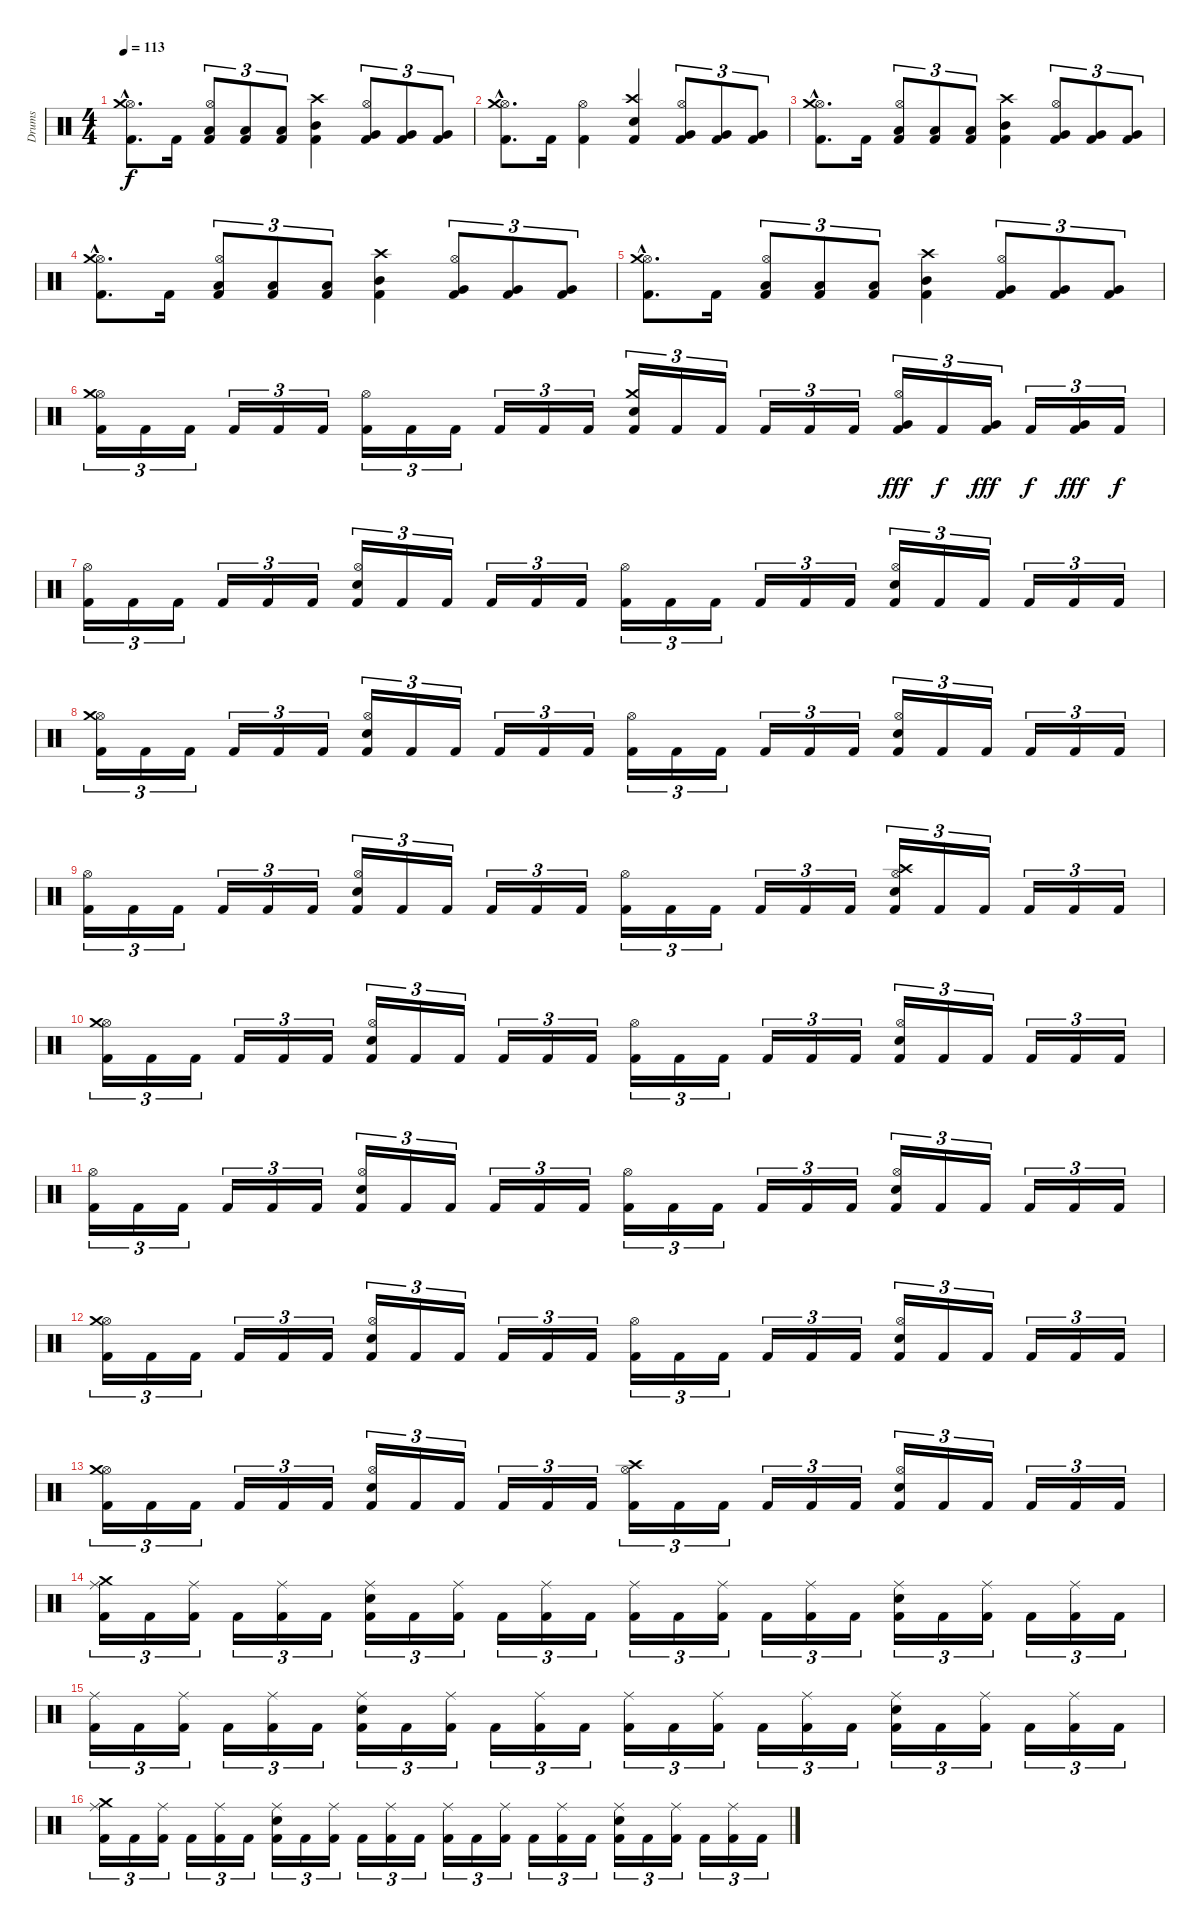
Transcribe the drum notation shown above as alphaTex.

\track ("Drums" "Drums") {instrument percussion}
\staff {score}
\articulation defaults
\ts (4 4)
\tempo 113
\clef neutral
\ks c
("Kick (hit) 2"{hac} "Hi-Hat (open)"{hac} "Crash medium (hit)"{hac}).8{d dy f} "Kick (hit) 2".16 ("Kick (hit) 2" "Low Tom (hit)" "Hi-Hat (open)").8{tu (3 2)} ("Kick (hit) 2" "Low Tom (hit)").8{tu (3 2)} ("Kick (hit) 2" "Low Tom (hit)").8{tu (3 2)} ("Kick (hit) 2" "Mid Tom (hit)" "Crash high (hit)").4 ("Kick (hit) 2" "Very Low Tom (hit)" "Hi-Hat (open)").8{tu (3 2)} ("Kick (hit) 2" "Very Low Tom (hit)").8{tu (3 2)} ("Kick (hit) 2" "Very Low Tom (hit)").8{tu (3 2)} |
("Kick (hit) 2"{hac} "Hi-Hat (open)"{hac} "Crash medium (hit)"{hac}).8{d} "Kick (hit) 2".16 ("Kick (hit) 2" "Hi-Hat (open)").4 ("Kick (hit) 2" "Electric Snare (hit)" "Crash high (hit)").4 ("Kick (hit) 2" "Very Low Tom (hit)" "Hi-Hat (open)").8{tu (3 2)} ("Kick (hit) 2" "Very Low Tom (hit)").8{tu (3 2)} ("Kick (hit) 2" "Very Low Tom (hit)").8{tu (3 2)} |
("Kick (hit) 2"{hac} "Hi-Hat (open)"{hac} "Crash medium (hit)"{hac}).8{d} "Kick (hit) 2".16 ("Kick (hit) 2" "Low Tom (hit)" "Hi-Hat (open)").8{tu (3 2)} ("Kick (hit) 2" "Low Tom (hit)").8{tu (3 2)} ("Kick (hit) 2" "Low Tom (hit)").8{tu (3 2)} ("Kick (hit) 2" "Mid Tom (hit)" "Crash high (hit)").4 ("Kick (hit) 2" "Very Low Tom (hit)" "Hi-Hat (open)").8{tu (3 2)} ("Kick (hit) 2" "Very Low Tom (hit)").8{tu (3 2)} ("Kick (hit) 2" "Very Low Tom (hit)").8{tu (3 2)} |
("Kick (hit) 2"{hac} "Hi-Hat (open)"{hac} "Crash medium (hit)"{hac}).8{d} "Kick (hit) 2".16 ("Kick (hit) 2" "Low Tom (hit)" "Hi-Hat (open)").8{tu (3 2)} ("Kick (hit) 2" "Low Tom (hit)").8{tu (3 2)} ("Kick (hit) 2" "Low Tom (hit)").8{tu (3 2)} ("Kick (hit) 2" "Mid Tom (hit)" "Crash high (hit)").4 ("Kick (hit) 2" "Very Low Tom (hit)" "Hi-Hat (open)").8{tu (3 2)} ("Kick (hit) 2" "Very Low Tom (hit)").8{tu (3 2)} ("Kick (hit) 2" "Very Low Tom (hit)").8{tu (3 2)} |
("Kick (hit) 2"{hac} "Hi-Hat (open)"{hac} "Crash medium (hit)"{hac}).8{d} "Kick (hit) 2".16 ("Kick (hit) 2" "Low Tom (hit)" "Hi-Hat (open)").8{tu (3 2)} ("Kick (hit) 2" "Low Tom (hit)").8{tu (3 2)} ("Kick (hit) 2" "Low Tom (hit)").8{tu (3 2)} ("Kick (hit) 2" "Mid Tom (hit)" "Crash high (hit)").4 ("Kick (hit) 2" "Very Low Tom (hit)" "Hi-Hat (open)").8{tu (3 2)} ("Kick (hit) 2" "Very Low Tom (hit)").8{tu (3 2)} ("Kick (hit) 2" "Very Low Tom (hit)").8{tu (3 2)} |
("Kick (hit) 2" "Hi-Hat (open)" "Crash medium (hit)").16{tu (3 2)} "Kick (hit) 2".16{tu (3 2)} "Kick (hit) 2".16{tu (3 2)} "Kick (hit) 2".16{tu (3 2)} "Kick (hit) 2".16{tu (3 2)} "Kick (hit) 2".16{tu (3 2)} ("Kick (hit) 2" "Hi-Hat (open)").16{tu (3 2)} "Kick (hit) 2".16{tu (3 2)} "Kick (hit) 2".16{tu (3 2)} "Kick (hit) 2".16{tu (3 2)} "Kick (hit) 2".16{tu (3 2)} "Kick (hit) 2".16{tu (3 2)} ("Kick (hit) 2" "Electric Snare (hit)" "Crash medium (hit)").16{tu (3 2)} "Kick (hit) 2".16{tu (3 2)} "Kick (hit) 2".16{tu (3 2)} "Kick (hit) 2".16{tu (3 2)} "Kick (hit) 2".16{tu (3 2)} "Kick (hit) 2".16{tu (3 2)} ("Kick (hit) 2" "Very Low Tom (hit)" "Hi-Hat (open)").16{tu (3 2) dy fff} "Kick (hit) 2".16{tu (3 2) dy f} ("Kick (hit) 2" "Very Low Tom (hit)").16{tu (3 2) dy fff} "Kick (hit) 2".16{tu (3 2) dy f} ("Kick (hit) 2" "Very Low Tom (hit)").16{tu (3 2) dy fff} "Kick (hit) 2".16{tu (3 2) dy f} |
("Kick (hit) 2" "Hi-Hat (open)").16{tu (3 2)} "Kick (hit) 2".16{tu (3 2)} "Kick (hit) 2".16{tu (3 2)} "Kick (hit) 2".16{tu (3 2)} "Kick (hit) 2".16{tu (3 2)} "Kick (hit) 2".16{tu (3 2)} ("Kick (hit) 2" "Snare (hit) 2" "Hi-Hat (open)").16{tu (3 2)} "Kick (hit) 2".16{tu (3 2)} "Kick (hit) 2".16{tu (3 2)} "Kick (hit) 2".16{tu (3 2)} "Kick (hit) 2".16{tu (3 2)} "Kick (hit) 2".16{tu (3 2)} ("Kick (hit) 2" "Hi-Hat (open)").16{tu (3 2)} "Kick (hit) 2".16{tu (3 2)} "Kick (hit) 2".16{tu (3 2)} "Kick (hit) 2".16{tu (3 2)} "Kick (hit) 2".16{tu (3 2)} "Kick (hit) 2".16{tu (3 2)} ("Kick (hit) 2" "Snare (hit) 2" "Hi-Hat (open)").16{tu (3 2)} "Kick (hit) 2".16{tu (3 2)} "Kick (hit) 2".16{tu (3 2)} "Kick (hit) 2".16{tu (3 2)} "Kick (hit) 2".16{tu (3 2)} "Kick (hit) 2".16{tu (3 2)} |
("Kick (hit) 2" "Hi-Hat (open)" "Crash medium (hit)").16{tu (3 2)} "Kick (hit) 2".16{tu (3 2)} "Kick (hit) 2".16{tu (3 2)} "Kick (hit) 2".16{tu (3 2)} "Kick (hit) 2".16{tu (3 2)} "Kick (hit) 2".16{tu (3 2)} ("Kick (hit) 2" "Snare (hit) 2" "Hi-Hat (open)").16{tu (3 2)} "Kick (hit) 2".16{tu (3 2)} "Kick (hit) 2".16{tu (3 2)} "Kick (hit) 2".16{tu (3 2)} "Kick (hit) 2".16{tu (3 2)} "Kick (hit) 2".16{tu (3 2)} ("Kick (hit) 2" "Hi-Hat (open)").16{tu (3 2)} "Kick (hit) 2".16{tu (3 2)} "Kick (hit) 2".16{tu (3 2)} "Kick (hit) 2".16{tu (3 2)} "Kick (hit) 2".16{tu (3 2)} "Kick (hit) 2".16{tu (3 2)} ("Kick (hit) 2" "Snare (hit) 2" "Hi-Hat (open)").16{tu (3 2)} "Kick (hit) 2".16{tu (3 2)} "Kick (hit) 2".16{tu (3 2)} "Kick (hit) 2".16{tu (3 2)} "Kick (hit) 2".16{tu (3 2)} "Kick (hit) 2".16{tu (3 2)} |
("Kick (hit) 2" "Hi-Hat (open)").16{tu (3 2)} "Kick (hit) 2".16{tu (3 2)} "Kick (hit) 2".16{tu (3 2)} "Kick (hit) 2".16{tu (3 2)} "Kick (hit) 2".16{tu (3 2)} "Kick (hit) 2".16{tu (3 2)} ("Kick (hit) 2" "Snare (hit) 2" "Hi-Hat (open)").16{tu (3 2)} "Kick (hit) 2".16{tu (3 2)} "Kick (hit) 2".16{tu (3 2)} "Kick (hit) 2".16{tu (3 2)} "Kick (hit) 2".16{tu (3 2)} "Kick (hit) 2".16{tu (3 2)} ("Kick (hit) 2" "Hi-Hat (open)").16{tu (3 2)} "Kick (hit) 2".16{tu (3 2)} "Kick (hit) 2".16{tu (3 2)} "Kick (hit) 2".16{tu (3 2)} "Kick (hit) 2".16{tu (3 2)} "Kick (hit) 2".16{tu (3 2)} ("Kick (hit) 2" "Snare (hit) 2" "Hi-Hat (open)" "Crash high (hit)").16{tu (3 2)} "Kick (hit) 2".16{tu (3 2)} "Kick (hit) 2".16{tu (3 2)} "Kick (hit) 2".16{tu (3 2)} "Kick (hit) 2".16{tu (3 2)} "Kick (hit) 2".16{tu (3 2)} |
("Kick (hit) 2" "Hi-Hat (open)" "Crash medium (hit)").16{tu (3 2)} "Kick (hit) 2".16{tu (3 2)} "Kick (hit) 2".16{tu (3 2)} "Kick (hit) 2".16{tu (3 2)} "Kick (hit) 2".16{tu (3 2)} "Kick (hit) 2".16{tu (3 2)} ("Kick (hit) 2" "Snare (hit) 2" "Hi-Hat (open)").16{tu (3 2)} "Kick (hit) 2".16{tu (3 2)} "Kick (hit) 2".16{tu (3 2)} "Kick (hit) 2".16{tu (3 2)} "Kick (hit) 2".16{tu (3 2)} "Kick (hit) 2".16{tu (3 2)} ("Kick (hit) 2" "Hi-Hat (open)").16{tu (3 2)} "Kick (hit) 2".16{tu (3 2)} "Kick (hit) 2".16{tu (3 2)} "Kick (hit) 2".16{tu (3 2)} "Kick (hit) 2".16{tu (3 2)} "Kick (hit) 2".16{tu (3 2)} ("Kick (hit) 2" "Snare (hit) 2" "Hi-Hat (open)").16{tu (3 2)} "Kick (hit) 2".16{tu (3 2)} "Kick (hit) 2".16{tu (3 2)} "Kick (hit) 2".16{tu (3 2)} "Kick (hit) 2".16{tu (3 2)} "Kick (hit) 2".16{tu (3 2)} |
("Kick (hit) 2" "Hi-Hat (open)").16{tu (3 2)} "Kick (hit) 2".16{tu (3 2)} "Kick (hit) 2".16{tu (3 2)} "Kick (hit) 2".16{tu (3 2)} "Kick (hit) 2".16{tu (3 2)} "Kick (hit) 2".16{tu (3 2)} ("Kick (hit) 2" "Snare (hit) 2" "Hi-Hat (open)").16{tu (3 2)} "Kick (hit) 2".16{tu (3 2)} "Kick (hit) 2".16{tu (3 2)} "Kick (hit) 2".16{tu (3 2)} "Kick (hit) 2".16{tu (3 2)} "Kick (hit) 2".16{tu (3 2)} ("Kick (hit) 2" "Hi-Hat (open)").16{tu (3 2)} "Kick (hit) 2".16{tu (3 2)} "Kick (hit) 2".16{tu (3 2)} "Kick (hit) 2".16{tu (3 2)} "Kick (hit) 2".16{tu (3 2)} "Kick (hit) 2".16{tu (3 2)} ("Kick (hit) 2" "Snare (hit) 2" "Hi-Hat (open)").16{tu (3 2)} "Kick (hit) 2".16{tu (3 2)} "Kick (hit) 2".16{tu (3 2)} "Kick (hit) 2".16{tu (3 2)} "Kick (hit) 2".16{tu (3 2)} "Kick (hit) 2".16{tu (3 2)} |
("Kick (hit) 2" "Hi-Hat (open)" "Crash medium (hit)").16{tu (3 2)} "Kick (hit) 2".16{tu (3 2)} "Kick (hit) 2".16{tu (3 2)} "Kick (hit) 2".16{tu (3 2)} "Kick (hit) 2".16{tu (3 2)} "Kick (hit) 2".16{tu (3 2)} ("Kick (hit) 2" "Snare (hit) 2" "Hi-Hat (open)").16{tu (3 2)} "Kick (hit) 2".16{tu (3 2)} "Kick (hit) 2".16{tu (3 2)} "Kick (hit) 2".16{tu (3 2)} "Kick (hit) 2".16{tu (3 2)} "Kick (hit) 2".16{tu (3 2)} ("Kick (hit) 2" "Hi-Hat (open)").16{tu (3 2)} "Kick (hit) 2".16{tu (3 2)} "Kick (hit) 2".16{tu (3 2)} "Kick (hit) 2".16{tu (3 2)} "Kick (hit) 2".16{tu (3 2)} "Kick (hit) 2".16{tu (3 2)} ("Kick (hit) 2" "Snare (hit) 2" "Hi-Hat (open)").16{tu (3 2)} "Kick (hit) 2".16{tu (3 2)} "Kick (hit) 2".16{tu (3 2)} "Kick (hit) 2".16{tu (3 2)} "Kick (hit) 2".16{tu (3 2)} "Kick (hit) 2".16{tu (3 2)} |
("Kick (hit) 2" "Hi-Hat (open)" "Crash medium (hit)").16{tu (3 2)} "Kick (hit) 2".16{tu (3 2)} "Kick (hit) 2".16{tu (3 2)} "Kick (hit) 2".16{tu (3 2)} "Kick (hit) 2".16{tu (3 2)} "Kick (hit) 2".16{tu (3 2)} ("Kick (hit) 2" "Snare (hit) 2" "Hi-Hat (open)").16{tu (3 2)} "Kick (hit) 2".16{tu (3 2)} "Kick (hit) 2".16{tu (3 2)} "Kick (hit) 2".16{tu (3 2)} "Kick (hit) 2".16{tu (3 2)} "Kick (hit) 2".16{tu (3 2)} ("Kick (hit) 2" "Hi-Hat (open)" "Crash high (hit)").16{tu (3 2)} "Kick (hit) 2".16{tu (3 2)} "Kick (hit) 2".16{tu (3 2)} "Kick (hit) 2".16{tu (3 2)} "Kick (hit) 2".16{tu (3 2)} "Kick (hit) 2".16{tu (3 2)} ("Kick (hit) 2" "Snare (hit) 2" "Hi-Hat (open)").16{tu (3 2)} "Kick (hit) 2".16{tu (3 2)} "Kick (hit) 2".16{tu (3 2)} "Kick (hit) 2".16{tu (3 2)} "Kick (hit) 2".16{tu (3 2)} "Kick (hit) 2".16{tu (3 2)} |
("Kick (hit) 2" "Ride (middle)" "Crash medium (hit)").16{tu (3 2)} "Kick (hit) 2".16{tu (3 2)} ("Kick (hit) 2" "Ride (middle)").16{tu (3 2)} "Kick (hit) 2".16{tu (3 2)} ("Kick (hit) 2" "Ride (middle)").16{tu (3 2)} "Kick (hit) 2".16{tu (3 2)} ("Kick (hit) 2" "Snare (hit) 2" "Ride (middle)").16{tu (3 2)} "Kick (hit) 2".16{tu (3 2)} ("Kick (hit) 2" "Ride (middle)").16{tu (3 2)} "Kick (hit) 2".16{tu (3 2)} ("Kick (hit) 2" "Ride (middle)").16{tu (3 2)} "Kick (hit) 2".16{tu (3 2)} ("Kick (hit) 2" "Ride (middle)").16{tu (3 2)} "Kick (hit) 2".16{tu (3 2)} ("Kick (hit) 2" "Ride (middle)").16{tu (3 2)} "Kick (hit) 2".16{tu (3 2)} ("Kick (hit) 2" "Ride (middle)").16{tu (3 2)} "Kick (hit) 2".16{tu (3 2)} ("Kick (hit) 2" "Snare (hit) 2" "Ride (middle)").16{tu (3 2)} "Kick (hit) 2".16{tu (3 2)} ("Kick (hit) 2" "Ride (middle)").16{tu (3 2)} "Kick (hit) 2".16{tu (3 2)} ("Kick (hit) 2" "Ride (middle)").16{tu (3 2)} "Kick (hit) 2".16{tu (3 2)} |
("Kick (hit) 2" "Ride (middle)").16{tu (3 2)} "Kick (hit) 2".16{tu (3 2)} ("Kick (hit) 2" "Ride (middle)").16{tu (3 2)} "Kick (hit) 2".16{tu (3 2)} ("Kick (hit) 2" "Ride (middle)").16{tu (3 2)} "Kick (hit) 2".16{tu (3 2)} ("Kick (hit) 2" "Snare (hit) 2" "Ride (middle)").16{tu (3 2)} "Kick (hit) 2".16{tu (3 2)} ("Kick (hit) 2" "Ride (middle)").16{tu (3 2)} "Kick (hit) 2".16{tu (3 2)} ("Kick (hit) 2" "Ride (middle)").16{tu (3 2)} "Kick (hit) 2".16{tu (3 2)} ("Kick (hit) 2" "Ride (middle)").16{tu (3 2)} "Kick (hit) 2".16{tu (3 2)} ("Kick (hit) 2" "Ride (middle)").16{tu (3 2)} "Kick (hit) 2".16{tu (3 2)} ("Kick (hit) 2" "Ride (middle)").16{tu (3 2)} "Kick (hit) 2".16{tu (3 2)} ("Kick (hit) 2" "Snare (hit) 2" "Ride (middle)").16{tu (3 2)} "Kick (hit) 2".16{tu (3 2)} ("Kick (hit) 2" "Ride (middle)").16{tu (3 2)} "Kick (hit) 2".16{tu (3 2)} ("Kick (hit) 2" "Ride (middle)").16{tu (3 2)} "Kick (hit) 2".16{tu (3 2)} |
("Kick (hit) 2" "Ride (middle)" "Crash medium (hit)").16{tu (3 2)} "Kick (hit) 2".16{tu (3 2)} ("Kick (hit) 2" "Ride (middle)").16{tu (3 2)} "Kick (hit) 2".16{tu (3 2)} ("Kick (hit) 2" "Ride (middle)").16{tu (3 2)} "Kick (hit) 2".16{tu (3 2)} ("Kick (hit) 2" "Snare (hit) 2" "Ride (middle)").16{tu (3 2)} "Kick (hit) 2".16{tu (3 2)} ("Kick (hit) 2" "Ride (middle)").16{tu (3 2)} "Kick (hit) 2".16{tu (3 2)} ("Kick (hit) 2" "Ride (middle)").16{tu (3 2)} "Kick (hit) 2".16{tu (3 2)} ("Kick (hit) 2" "Ride (middle)").16{tu (3 2)} "Kick (hit) 2".16{tu (3 2)} ("Kick (hit) 2" "Ride (middle)").16{tu (3 2)} "Kick (hit) 2".16{tu (3 2)} ("Kick (hit) 2" "Ride (middle)").16{tu (3 2)} "Kick (hit) 2".16{tu (3 2)} ("Kick (hit) 2" "Snare (hit) 2" "Ride (middle)").16{tu (3 2)} "Kick (hit) 2".16{tu (3 2)} ("Kick (hit) 2" "Ride (middle)").16{tu (3 2)} "Kick (hit) 2".16{tu (3 2)} ("Kick (hit) 2" "Ride (middle)").16{tu (3 2)} "Kick (hit) 2".16{tu (3 2)}
